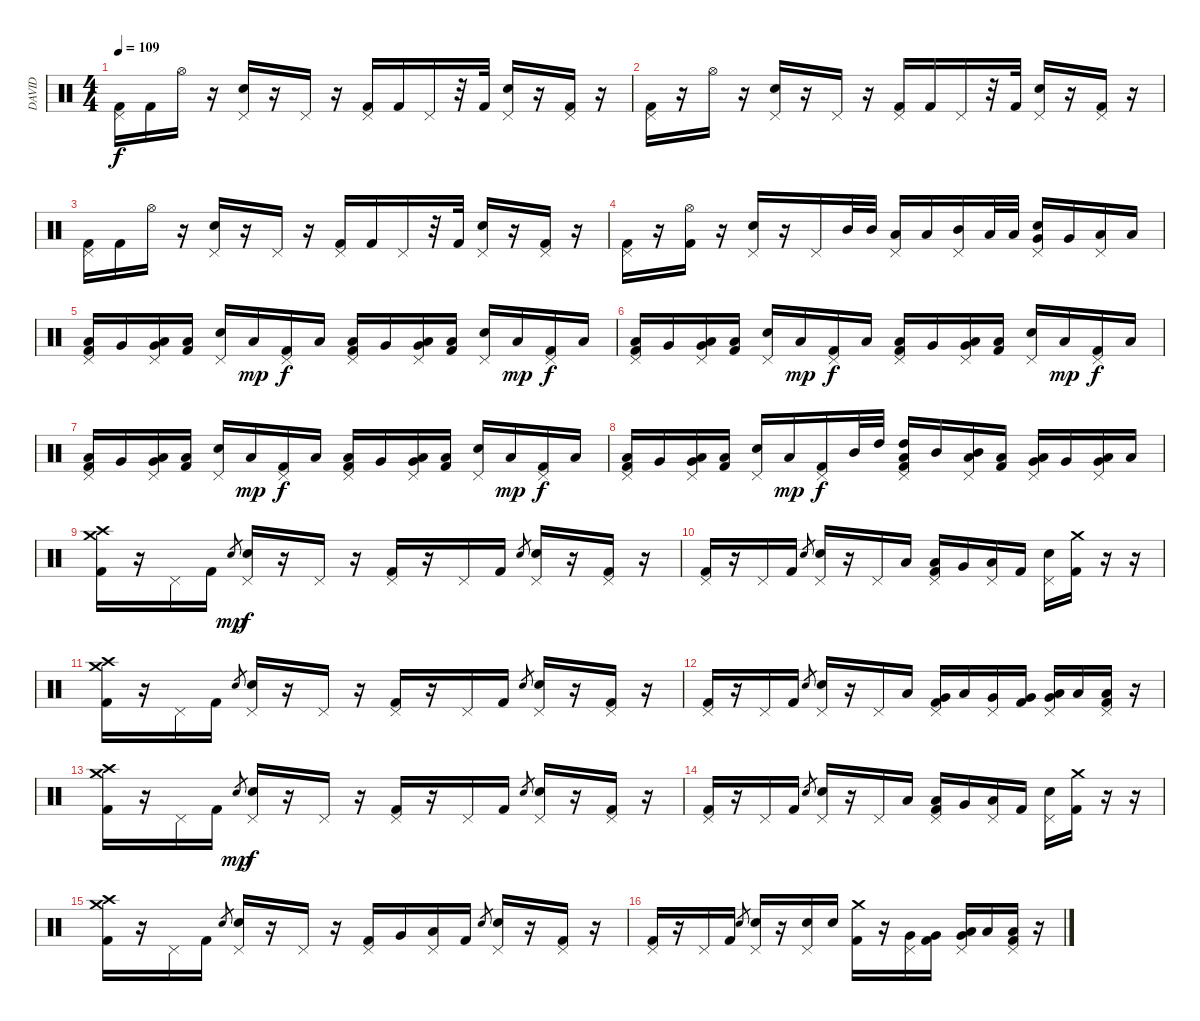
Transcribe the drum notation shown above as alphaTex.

\track ("DAVID" "DAVID") {instrument percussion}
\staff {score}
\articulation defaults
\ts (4 4)
\tempo 109
\clef neutral
\ks c
("Pedal Hi-Hat (hit)" "Kick (hit) 2").16{dy f} "Kick (hit) 2".16 "Hi-Hat (open)".16 r.16 ("Pedal Hi-Hat (hit)" "Snare (hit) 2").16 r.16 "Pedal Hi-Hat (hit)".16 r.16 ("Pedal Hi-Hat (hit)" "Kick (hit) 2").16 "Kick (hit) 2".16 "Pedal Hi-Hat (hit)".16 r.32 "Kick (hit) 2".32 ("Pedal Hi-Hat (hit)" "Snare (hit) 2").16 r.16 ("Pedal Hi-Hat (hit)" "Kick (hit) 2").16 r.16 |
("Pedal Hi-Hat (hit)" "Kick (hit) 2").16 r.16 "Hi-Hat (open)".16 r.16 ("Pedal Hi-Hat (hit)" "Snare (hit) 2").16 r.16 "Pedal Hi-Hat (hit)".16 r.16 ("Pedal Hi-Hat (hit)" "Kick (hit) 2").16 "Kick (hit) 2".16 "Pedal Hi-Hat (hit)".16 r.32 "Kick (hit) 2".32 ("Pedal Hi-Hat (hit)" "Snare (hit) 2").16 r.16 ("Pedal Hi-Hat (hit)" "Kick (hit) 2").16 r.16 |
("Pedal Hi-Hat (hit)" "Kick (hit) 2").16 "Kick (hit) 2".16 "Hi-Hat (open)".16 r.16 ("Pedal Hi-Hat (hit)" "Snare (hit) 2").16 r.16 "Pedal Hi-Hat (hit)".16 r.16 ("Pedal Hi-Hat (hit)" "Kick (hit) 2").16 "Kick (hit) 2".16 "Pedal Hi-Hat (hit)".16 r.32 "Kick (hit) 2".32 ("Pedal Hi-Hat (hit)" "Snare (hit) 2").16 r.16 ("Pedal Hi-Hat (hit)" "Kick (hit) 2").16 r.16 |
("Pedal Hi-Hat (hit)" "Kick (hit) 2").16 r.16 ("Hi-Hat (open)" "Kick (hit) 2").16 r.16 ("Pedal Hi-Hat (hit)" "Snare (hit) 2").16 r.16 "Pedal Hi-Hat (hit)".16 "Mid Tom (hit)".32 "Mid Tom (hit)".32 ("Pedal Hi-Hat (hit)" "Low Tom (hit)").16 "Low Tom (hit)".16 ("Pedal Hi-Hat (hit)" "Mid Tom (hit)").16 "Low Tom (hit)".32 "Low Tom (hit)".32 ("Pedal Hi-Hat (hit)" "Snare (hit) 2" "Very Low Tom (hit)").16 "Very Low Tom (hit)".16 ("Pedal Hi-Hat (hit)" "Low Floor Tom (hit)").16 "Low Floor Tom (hit)".16 |
("Pedal Hi-Hat (hit)" "Low Tom (hit)" "Kick (hit) 2").16 "Very Low Tom (hit)".16 ("Pedal Hi-Hat (hit)" "Very Low Tom (hit)" "Low Floor Tom (hit)").16 ("Low Floor Tom (hit)" "Kick (hit) 2").16 ("Pedal Hi-Hat (hit)" "Snare (hit) 2").16 "Low Floor Tom (hit)".16{dy mp} ("Pedal Hi-Hat (hit)" "Kick (hit) 2").16{dy f} "Low Tom (hit)".16 ("Pedal Hi-Hat (hit)" "Low Tom (hit)" "Kick (hit) 2").16 "Very Low Tom (hit)".16 ("Pedal Hi-Hat (hit)" "Very Low Tom (hit)" "Low Floor Tom (hit)").16 ("Low Floor Tom (hit)" "Kick (hit) 2").16 ("Pedal Hi-Hat (hit)" "Snare (hit) 2").16 "Low Floor Tom (hit)".16{dy mp} ("Pedal Hi-Hat (hit)" "Kick (hit) 2").16{dy f} "Low Tom (hit)".16 |
("Pedal Hi-Hat (hit)" "Low Tom (hit)" "Kick (hit) 2").16 "Very Low Tom (hit)".16 ("Pedal Hi-Hat (hit)" "Very Low Tom (hit)" "Low Floor Tom (hit)").16 ("Low Floor Tom (hit)" "Kick (hit) 2").16 ("Pedal Hi-Hat (hit)" "Snare (hit) 2").16 "Low Floor Tom (hit)".16{dy mp} ("Pedal Hi-Hat (hit)" "Kick (hit) 2").16{dy f} "Low Tom (hit)".16 ("Pedal Hi-Hat (hit)" "Low Tom (hit)" "Kick (hit) 2").16 "Very Low Tom (hit)".16 ("Pedal Hi-Hat (hit)" "Very Low Tom (hit)" "Low Floor Tom (hit)").16 ("Low Floor Tom (hit)" "Kick (hit) 2").16 ("Pedal Hi-Hat (hit)" "Snare (hit) 2").16 "Low Floor Tom (hit)".16{dy mp} ("Pedal Hi-Hat (hit)" "Kick (hit) 2").16{dy f} "Low Tom (hit)".16 |
("Pedal Hi-Hat (hit)" "Low Tom (hit)" "Kick (hit) 2").16 "Very Low Tom (hit)".16 ("Pedal Hi-Hat (hit)" "Very Low Tom (hit)" "Low Floor Tom (hit)").16 ("Low Floor Tom (hit)" "Kick (hit) 2").16 ("Pedal Hi-Hat (hit)" "Snare (hit) 2").16 "Low Floor Tom (hit)".16{dy mp} ("Pedal Hi-Hat (hit)" "Kick (hit) 2").16{dy f} "Low Tom (hit)".16 ("Pedal Hi-Hat (hit)" "Low Tom (hit)" "Kick (hit) 2").16 "Very Low Tom (hit)".16 ("Pedal Hi-Hat (hit)" "Very Low Tom (hit)" "Low Floor Tom (hit)").16 ("Low Floor Tom (hit)" "Kick (hit) 2").16 ("Pedal Hi-Hat (hit)" "Snare (hit) 2").16 "Low Floor Tom (hit)".16{dy mp} ("Pedal Hi-Hat (hit)" "Kick (hit) 2").16{dy f} "Low Tom (hit)".16 |
("Pedal Hi-Hat (hit)" "Low Tom (hit)" "Kick (hit) 2").16 "Very Low Tom (hit)".16 ("Pedal Hi-Hat (hit)" "Very Low Tom (hit)" "Low Floor Tom (hit)").16 ("Low Floor Tom (hit)" "Kick (hit) 2").16 ("Pedal Hi-Hat (hit)" "Snare (hit) 2").16 "Low Floor Tom (hit)".16{dy mp} ("Pedal Hi-Hat (hit)" "Kick (hit) 2").16{dy f} "Mid Tom (hit)".32 "High Tom (hit)".32 ("Pedal Hi-Hat (hit)" "High Tom (hit)" "Low Tom (hit)" "Kick (hit) 2").16 "Mid Tom (hit)".16 ("Pedal Hi-Hat (hit)" "Mid Tom (hit)" "Low Tom (hit)").16 ("Low Tom (hit)" "Kick (hit) 2").16 ("Pedal Hi-Hat (hit)" "Very Low Tom (hit)" "Low Tom (hit)").16 "Very Low Tom (hit)".16 ("Pedal Hi-Hat (hit)" "Very Low Tom (hit)" "Low Floor Tom (hit)").16 "Low Floor Tom (hit)".16 |
("Crash medium (hit)" "Crash high (hit)" "Kick (hit) 2").16 r.16 "Pedal Hi-Hat (hit)".16 "Kick (hit) 2".16 "Snare (hit) 2".8{gr dy mp} ("Pedal Hi-Hat (hit)" "Snare (hit) 2").16{dy f} r.16 "Pedal Hi-Hat (hit)".16 r.16 ("Pedal Hi-Hat (hit)" "Kick (hit) 2").16 r.16 "Pedal Hi-Hat (hit)".16 "Kick (hit) 2".16 "Snare (hit) 2".8{gr} ("Pedal Hi-Hat (hit)" "Snare (hit) 2").16 r.16 ("Pedal Hi-Hat (hit)" "Kick (hit) 2").16 r.16 |
("Pedal Hi-Hat (hit)" "Kick (hit) 2").16 r.16 "Pedal Hi-Hat (hit)".16 "Kick (hit) 2".16 "Snare (hit) 2".8{gr} ("Pedal Hi-Hat (hit)" "Snare (hit) 2").16 r.16 "Pedal Hi-Hat (hit)".16 "Low Tom (hit)".16 ("Pedal Hi-Hat (hit)" "Low Tom (hit)" "Kick (hit) 2").16 "Very Low Tom (hit)".16 ("Pedal Hi-Hat (hit)" "Low Floor Tom (hit)").16 "Kick (hit) 2".16 ("Pedal Hi-Hat (hit)" "Snare (hit) 2").16 ("Crash medium (hit)" "Kick (hit) 2").16 r.16 r.16 |
("Crash medium (hit)" "Crash high (hit)" "Kick (hit) 2").16 r.16 "Pedal Hi-Hat (hit)".16 "Kick (hit) 2".16 "Snare (hit) 2".8{gr} ("Pedal Hi-Hat (hit)" "Snare (hit) 2").16 r.16 "Pedal Hi-Hat (hit)".16 r.16 ("Pedal Hi-Hat (hit)" "Kick (hit) 2").16 r.16 "Pedal Hi-Hat (hit)".16 "Kick (hit) 2".16 "Snare (hit) 2".8{gr} ("Pedal Hi-Hat (hit)" "Snare (hit) 2").16 r.16 ("Pedal Hi-Hat (hit)" "Kick (hit) 2").16 r.16 |
("Pedal Hi-Hat (hit)" "Kick (hit) 2").16 r.16 "Pedal Hi-Hat (hit)".16 "Kick (hit) 2".16 "Snare (hit) 2".8{gr} ("Pedal Hi-Hat (hit)" "Snare (hit) 2").16 r.16 "Pedal Hi-Hat (hit)".16 "Low Tom (hit)".16 ("Pedal Hi-Hat (hit)" "Very Low Tom (hit)" "Kick (hit) 2").16 "Low Tom (hit)".16 ("Pedal Hi-Hat (hit)" "Very Low Tom (hit)").16 ("Very Low Tom (hit)" "Kick (hit) 2").16 ("Pedal Hi-Hat (hit)" "Very Low Tom (hit)" "Low Floor Tom (hit)").16 "Low Floor Tom (hit)".16 ("Pedal Hi-Hat (hit)" "Low Floor Tom (hit)" "Kick (hit) 2").16 r.16 |
("Crash medium (hit)" "Crash high (hit)" "Kick (hit) 2").16 r.16 "Pedal Hi-Hat (hit)".16 "Kick (hit) 2".16 "Snare (hit) 2".8{gr dy mp} ("Pedal Hi-Hat (hit)" "Snare (hit) 2").16{dy f} r.16 "Pedal Hi-Hat (hit)".16 r.16 ("Pedal Hi-Hat (hit)" "Kick (hit) 2").16 r.16 "Pedal Hi-Hat (hit)".16 "Kick (hit) 2".16 "Snare (hit) 2".8{gr} ("Pedal Hi-Hat (hit)" "Snare (hit) 2").16 r.16 ("Pedal Hi-Hat (hit)" "Kick (hit) 2").16 r.16 |
("Pedal Hi-Hat (hit)" "Kick (hit) 2").16 r.16 "Pedal Hi-Hat (hit)".16 "Kick (hit) 2".16 "Snare (hit) 2".8{gr} ("Pedal Hi-Hat (hit)" "Snare (hit) 2").16 r.16 "Pedal Hi-Hat (hit)".16 "Low Tom (hit)".16 ("Pedal Hi-Hat (hit)" "Low Tom (hit)" "Kick (hit) 2").16 "Very Low Tom (hit)".16 ("Pedal Hi-Hat (hit)" "Low Floor Tom (hit)").16 "Kick (hit) 2".16 ("Pedal Hi-Hat (hit)" "Snare (hit) 2").16 ("Crash medium (hit)" "Kick (hit) 2").16 r.16 r.16 |
("Crash medium (hit)" "Crash high (hit)" "Kick (hit) 2").16 r.16 "Pedal Hi-Hat (hit)".16 "Kick (hit) 2".16 "Snare (hit) 2".8{gr} ("Pedal Hi-Hat (hit)" "Snare (hit) 2").16 r.16 "Pedal Hi-Hat (hit)".16 r.16 ("Pedal Hi-Hat (hit)" "Kick (hit) 2").16 "Very Low Tom (hit)".16 ("Pedal Hi-Hat (hit)" "Low Floor Tom (hit)").16 "Kick (hit) 2".16 "Snare (hit) 2".8{gr} ("Pedal Hi-Hat (hit)" "Snare (hit) 2").16 r.16 ("Pedal Hi-Hat (hit)" "Kick (hit) 2").16 r.16 |
("Pedal Hi-Hat (hit)" "Kick (hit) 2").16 r.16 "Pedal Hi-Hat (hit)".16 "Kick (hit) 2".16 "Snare (hit) 2".8{gr} ("Pedal Hi-Hat (hit)" "Snare (hit) 2").16 r.16 ("Pedal Hi-Hat (hit)" "Snare (hit) 2").16 "Snare (hit) 2".16 ("Crash medium (hit)" "Kick (hit) 2").16 r.16 ("Pedal Hi-Hat (hit)" "Very Low Tom (hit)").16 ("Very Low Tom (hit)" "Kick (hit) 2").16 ("Pedal Hi-Hat (hit)" "Very Low Tom (hit)" "Low Floor Tom (hit)").16 "Low Floor Tom (hit)".16 ("Pedal Hi-Hat (hit)" "Low Floor Tom (hit)" "Kick (hit) 2").16 r.16
